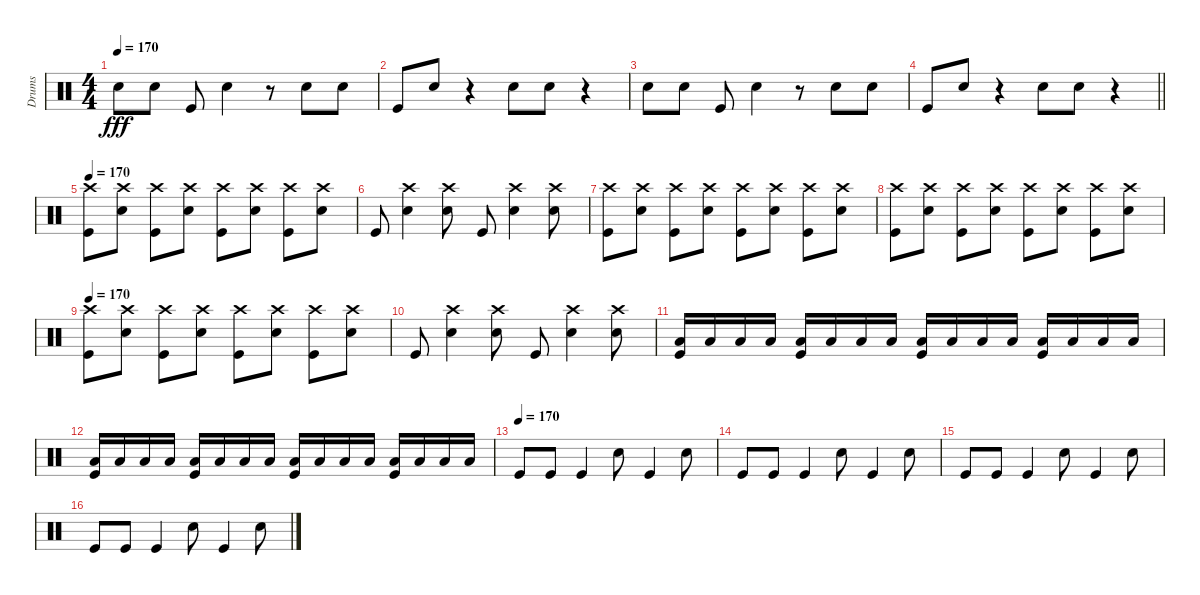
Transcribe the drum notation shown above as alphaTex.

\track ("Drums" "Drums") {instrument percussion}
\staff {score}
\articulation defaults
\ts (4 4)
\tempo 170
\clef neutral
\ks c "Snare (hit) 2".8{dy fff} "Snare (hit) 2".8 "Kick (hit)".8 "Snare (hit) 2".4
r.8 "Snare (hit) 2".8 "Snare (hit) 2".8 |
"Kick (hit)".8 "Snare (hit) 2".8 r.4 "Snare (hit) 2".8 "Snare (hit) 2".8 r.4 |
"Snare (hit) 2".8 "Snare (hit) 2".8 "Kick (hit)".8 "Snare (hit) 2".4 r.8 "Snare (hit) 2".8 "Snare (hit) 2".8 |
\barLineRight lightlight "Kick (hit)".8 "Snare (hit) 2".8
r.4 "Snare (hit) 2".8 "Snare (hit) 2".8 r.4 |
\tempo 170
("Kick (hit)" "Crash high (hit)").8 ("Snare (hit) 2" "Crash high (hit)").8 ("Kick (hit)" "Crash high (hit)").8 ("Snare (hit) 2" "Crash high (hit)").8 ("Kick (hit)" "Crash high (hit)").8 ("Snare (hit) 2" "Crash high (hit)").8 ("Kick (hit)" "Crash high (hit)").8 ("Snare (hit) 2" "Crash high (hit)").8 |
"Kick (hit)".8 ("Snare (hit) 2" "Crash high (hit)").4 ("Snare (hit) 2" "Crash high (hit)").8 "Kick (hit)".8 ("Snare (hit) 2" "Crash high (hit)").4 ("Snare (hit) 2" "Crash high (hit)").8 |
("Kick (hit)" "Crash high (hit)").8 ("Snare (hit) 2" "Crash high (hit)").8 ("Kick (hit)" "Crash high (hit)").8 ("Snare (hit) 2" "Crash high (hit)").8 ("Kick (hit)" "Crash high (hit)").8 ("Snare (hit) 2" "Crash high (hit)").8 ("Kick (hit)" "Crash high (hit)").8 ("Snare (hit) 2" "Crash high (hit)").8 |
("Kick (hit)" "Crash high (hit)").8 ("Snare (hit) 2" "Crash high (hit)").8 ("Kick (hit)" "Crash high (hit)").8 ("Snare (hit) 2" "Crash high (hit)").8 ("Kick (hit)" "Crash high (hit)").8 ("Snare (hit) 2" "Crash high (hit)").8 ("Kick (hit)" "Crash high (hit)").8 ("Snare (hit) 2" "Crash high (hit)").8 |
\tempo 170
("Kick (hit)" "Crash high (hit)").8 ("Snare (hit) 2" "Crash high (hit)").8 ("Kick (hit)" "Crash high (hit)").8 ("Snare (hit) 2" "Crash high (hit)").8 ("Kick (hit)" "Crash high (hit)").8 ("Snare (hit) 2" "Crash high (hit)").8 ("Kick (hit)" "Crash high (hit)").8 ("Snare (hit) 2" "Crash high (hit)").8 |
"Kick (hit)".8 ("Snare (hit) 2" "Crash high (hit)").4 ("Snare (hit) 2" "Crash high (hit)").8 "Kick (hit)".8 ("Snare (hit) 2" "Crash high (hit)").4 ("Snare (hit) 2" "Crash high (hit)").8 |
("Low Tom (hit)" "Kick (hit)").16 "Low Tom (hit)".16 "Low Tom (hit)".16 "Low Tom (hit)".16 ("Low Tom (hit)" "Kick (hit)").16 "Low Tom (hit)".16 "Low Tom (hit)".16 "Low Tom (hit)".16 ("Low Tom (hit)" "Kick (hit)").16 "Low Tom (hit)".16 "Low Tom (hit)".16 "Low Tom (hit)".16 ("Low Tom (hit)" "Kick (hit)").16 "Low Tom (hit)".16 "Low Tom (hit)".16 "Low Tom (hit)".16 |
("Low Tom (hit)" "Kick (hit)").16 "Low Tom (hit)".16 "Low Tom (hit)".16 "Low Tom (hit)".16 ("Low Tom (hit)" "Kick (hit)").16 "Low Tom (hit)".16 "Low Tom (hit)".16 "Low Tom (hit)".16 ("Low Tom (hit)" "Kick (hit)").16 "Low Tom (hit)".16 "Low Tom (hit)".16 "Low Tom (hit)".16 ("Low Tom (hit)" "Kick (hit)").16 "Low Tom (hit)".16 "Low Tom (hit)".16 "Low Tom (hit)".16 |
\tempo (170)
"Kick (hit)".8 "Kick (hit)".8 "Kick (hit)".4 "Snare (hit) 2".8 "Kick (hit)".4 "Snare (hit) 2".8 |
"Kick (hit)".8 "Kick (hit)".8 "Kick (hit)".4 "Snare (hit) 2".8 "Kick (hit)".4 "Snare (hit) 2".8 |
"Kick (hit)".8 "Kick (hit)".8 "Kick (hit)".4 "Snare (hit) 2".8 "Kick (hit)".4 "Snare (hit) 2".8 |
"Kick (hit)".8 "Kick (hit)".8 "Kick (hit)".4 "Snare (hit) 2".8 "Kick (hit)".4 "Snare (hit) 2".8
